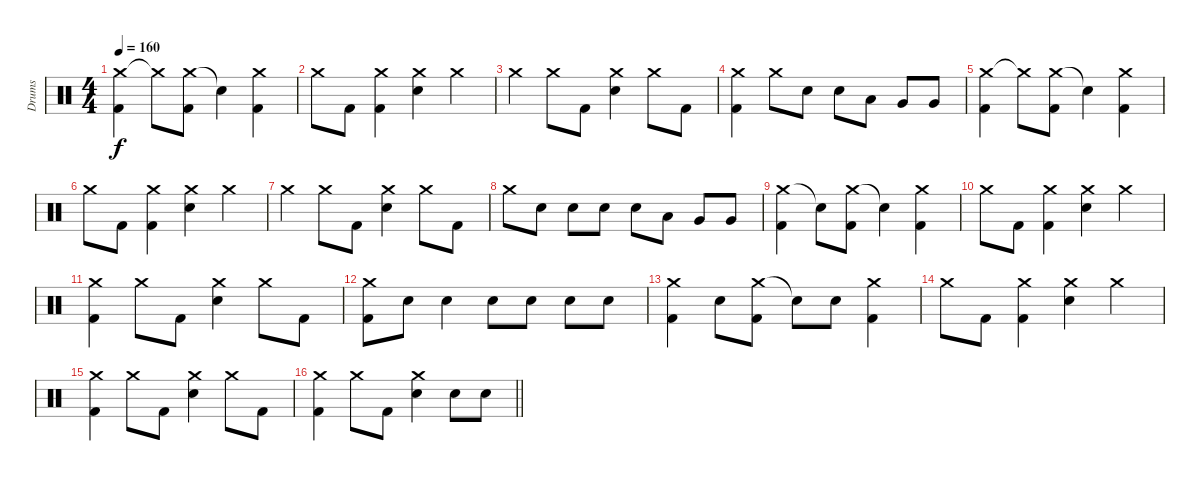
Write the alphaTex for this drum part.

\track ("Drums" "Drums") {instrument percussion}
\staff {score}
\articulation defaults
\ts (4 4)
\tempo 160
\clef neutral
\ks c
("Crash medium (hit)" "Kick (hit) 2").4{dy f} "Crash medium (hit)"{t}.8 ("Crash medium (hit)" "Kick (hit) 2").8 "Snare (hit)"{t}.4 ("Crash medium (hit)" "Kick (hit) 2").4 |
"Crash medium (hit)".8 "Kick (hit) 2".8 ("Crash medium (hit)" "Kick (hit) 2").4 ("Crash medium (hit)" "Snare (hit) 2").4 "Crash medium (hit)".4 |
"Crash medium (hit)".4 "Crash medium (hit)".8 "Kick (hit) 2".8 ("Crash medium (hit)" "Snare (hit) 2").4 "Crash medium (hit)".8 "Kick (hit) 2".8 |
("Crash medium (hit)" "Kick (hit) 2").4 "Crash medium (hit)".8 "Snare (hit) 2".8 "Snare (hit) 2".8 "Low Tom (hit)".8 "Very Low Tom (hit)".8 "Very Low Tom (hit)".8 |
("Crash medium (hit)" "Kick (hit) 2").4 "Crash medium (hit)"{t}.8 ("Crash medium (hit)" "Kick (hit) 2").8 "Snare (hit)"{t}.4 ("Crash medium (hit)" "Kick (hit) 2").4 |
"Crash medium (hit)".8 "Kick (hit) 2".8 ("Crash medium (hit)" "Kick (hit) 2").4 ("Crash medium (hit)" "Snare (hit) 2").4 "Crash medium (hit)".4 |
"Crash medium (hit)".4 "Crash medium (hit)".8 "Kick (hit) 2".8 ("Crash medium (hit)" "Snare (hit) 2").4 "Crash medium (hit)".8 "Kick (hit) 2".8 |
"Crash medium (hit)".8 "Snare (hit) 2".8 "Snare (hit) 2".8 "Snare (hit) 2".8 "Snare (hit) 2".8 "Low Tom (hit)".8 "Very Low Tom (hit)".8 "Very Low Tom (hit)".8 |
("Crash medium (hit)" "Kick (hit) 2").4 "Snare (hit)"{t}.8 ("Crash medium (hit)" "Kick (hit) 2").8 "Snare (hit)"{t}.4 ("Crash medium (hit)" "Kick (hit) 2").4 |
"Crash medium (hit)".8 "Kick (hit) 2".8 ("Crash medium (hit)" "Kick (hit) 2").4 ("Crash medium (hit)" "Snare (hit) 2").4 "Crash medium (hit)".4 |
("Crash medium (hit)" "Kick (hit) 2").4 "Crash medium (hit)".8 "Kick (hit) 2".8 ("Crash medium (hit)" "Snare (hit) 2").4 "Crash medium (hit)".8 "Kick (hit) 2".8 |
("Crash medium (hit)" "Kick (hit) 2").8 "Snare (hit) 2".8 "Snare (hit) 2".4 "Snare (hit) 2".8 "Snare (hit) 2".8 "Snare (hit) 2".8 "Snare (hit) 2".8 |
("Crash medium (hit)" "Kick (hit) 2").4 "Snare (hit) 2".8 ("Crash medium (hit)" "Kick (hit) 2").8 "Snare (hit)"{t}.8 "Snare (hit) 2".8 ("Crash medium (hit)" "Kick (hit) 2").4 |
"Crash medium (hit)".8 "Kick (hit) 2".8 ("Crash medium (hit)" "Kick (hit) 2").4 ("Crash medium (hit)" "Snare (hit) 2").4 "Crash medium (hit)".4 |
("Crash medium (hit)" "Kick (hit) 2").4 "Crash medium (hit)".8 "Kick (hit) 2".8 ("Crash medium (hit)" "Snare (hit) 2").4 "Crash medium (hit)".8 "Kick (hit) 2".8 |
\barLineRight lightlight
("Crash medium (hit)" "Kick (hit) 2").4 "Crash medium (hit)".8 "Kick (hit) 2".8 ("Crash medium (hit)" "Snare (hit) 2").4 "Snare (hit) 2".8 "Snare (hit) 2".8
